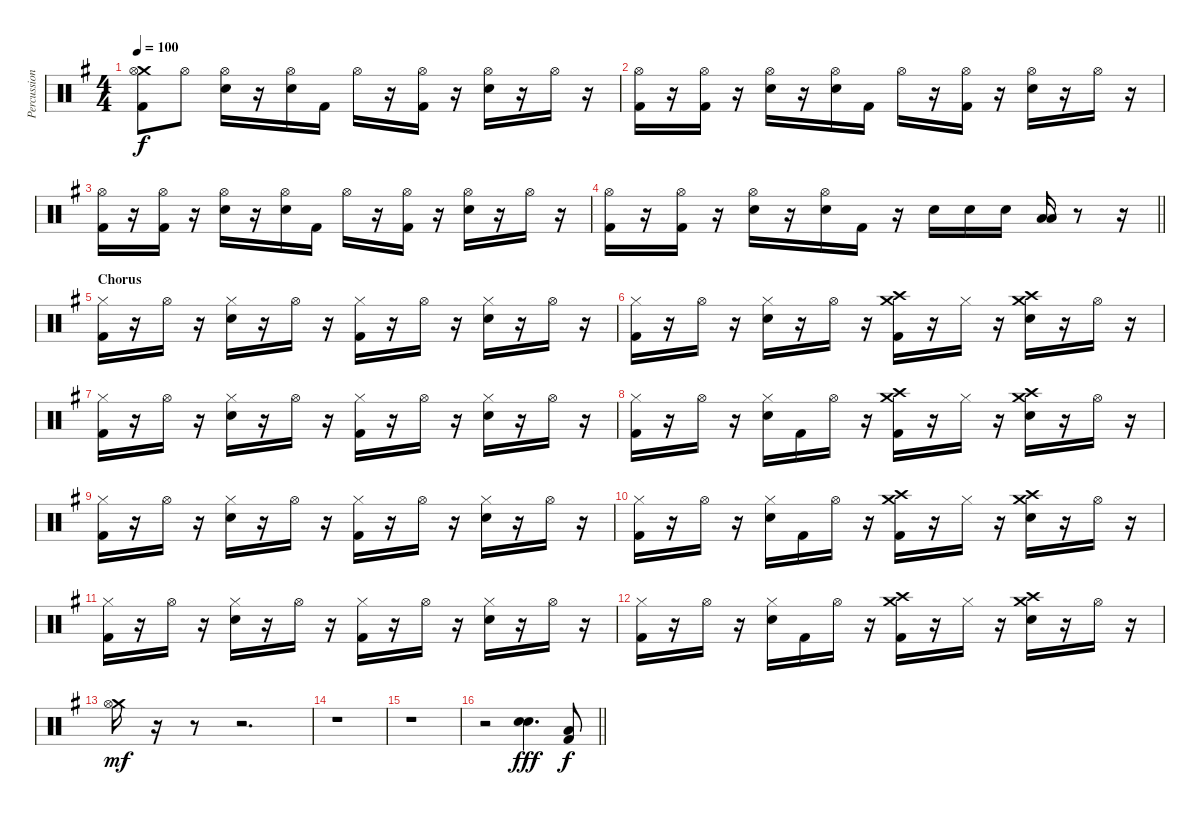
\track ("Percussion" "Percussion") {instrument percussion}
\staff {score}
\articulation defaults
\ts (4 4)
\tempo 100
\clef neutral
\ks g
("Crash medium (hit)" "Hi-Hat (open)" "Kick (hit) 2").8{dy f} "Hi-Hat (open)".8 ("Hi-Hat (open)" "Snare (hit) 2").16 r.16 ("Hi-Hat (open)" "Snare (hit) 2").16 "Kick (hit) 2".16 "Hi-Hat (open)".16 r.16 ("Hi-Hat (open)" "Kick (hit) 2").16 r.16 ("Hi-Hat (open)" "Snare (hit) 2").16 r.16 "Hi-Hat (open)".16 r.16 |
("Hi-Hat (open)" "Kick (hit) 2").16 r.16 ("Hi-Hat (open)" "Kick (hit) 2").16 r.16 ("Hi-Hat (open)" "Snare (hit) 2").16 r.16 ("Hi-Hat (open)" "Snare (hit) 2").16 "Kick (hit) 2".16 "Hi-Hat (open)".16 r.16 ("Hi-Hat (open)" "Kick (hit) 2").16 r.16 ("Hi-Hat (open)" "Snare (hit) 2").16 r.16 "Hi-Hat (open)".16 r.16 |
("Hi-Hat (open)" "Kick (hit) 2").16 r.16 ("Hi-Hat (open)" "Kick (hit) 2").16 r.16 ("Hi-Hat (open)" "Snare (hit) 2").16 r.16 ("Hi-Hat (open)" "Snare (hit) 2").16 "Kick (hit) 2".16 "Hi-Hat (open)".16 r.16 ("Hi-Hat (open)" "Kick (hit) 2").16 r.16 ("Hi-Hat (open)" "Snare (hit) 2").16 r.16 "Hi-Hat (open)".16 r.16 |
\barLineRight lightlight
("Hi-Hat (open)" "Kick (hit) 2").16 r.16 ("Hi-Hat (open)" "Kick (hit) 2").16 r.16 ("Hi-Hat (open)" "Snare (hit) 2").16 r.16 ("Hi-Hat (open)" "Snare (hit) 2").16 "Kick (hit) 2".16 r.16 "Snare (hit) 2".16 "Snare (hit) 2".16 "Snare (hit) 2".16 ("Low Tom (hit)" "Low Tom (hit)").16 r.8 r.16 |
\section ("" "Chorus")
("Hi-Hat (closed)" "Kick (hit) 2").16 r.16 "Hi-Hat (open)".16 r.16 ("Hi-Hat (closed)" "Snare (hit) 2").16 r.16 "Hi-Hat (open)".16 r.16 ("Hi-Hat (closed)" "Kick (hit) 2").16 r.16 "Hi-Hat (open)".16 r.16 ("Hi-Hat (closed)" "Snare (hit) 2").16 r.16 "Hi-Hat (open)".16 r.16 |
("Hi-Hat (closed)" "Kick (hit) 2").16 r.16 "Hi-Hat (open)".16 r.16 ("Hi-Hat (closed)" "Snare (hit) 2").16 r.16 "Hi-Hat (open)".16 r.16 ("Crash medium (hit)" "Crash high (hit)" "Kick (hit) 2").16 r.16 "Hi-Hat (closed)".16 r.16 ("Crash medium (hit)" "Crash high (hit)" "Snare (hit) 2").16 r.16 "Hi-Hat (open)".16 r.16 |
("Hi-Hat (closed)" "Kick (hit) 2").16 r.16 "Hi-Hat (open)".16 r.16 ("Hi-Hat (closed)" "Snare (hit) 2").16 r.16 "Hi-Hat (open)".16 r.16 ("Hi-Hat (closed)" "Kick (hit) 2").16 r.16 "Hi-Hat (open)".16 r.16 ("Hi-Hat (closed)" "Snare (hit) 2").16 r.16 "Hi-Hat (open)".16 r.16 |
("Hi-Hat (closed)" "Kick (hit) 2").16 r.16 "Hi-Hat (open)".16 r.16 ("Hi-Hat (closed)" "Snare (hit) 2").16 "Kick (hit) 2".16 "Hi-Hat (open)".16 r.16 ("Crash medium (hit)" "Crash high (hit)" "Kick (hit) 2").16 r.16 "Hi-Hat (closed)".16 r.16 ("Crash medium (hit)" "Crash high (hit)" "Snare (hit) 2").16 r.16 "Hi-Hat (open)".16 r.16 |
("Hi-Hat (closed)" "Kick (hit) 2").16 r.16 "Hi-Hat (open)".16 r.16 ("Hi-Hat (closed)" "Snare (hit) 2").16 r.16 "Hi-Hat (open)".16 r.16 ("Hi-Hat (closed)" "Kick (hit) 2").16 r.16 "Hi-Hat (open)".16 r.16 ("Hi-Hat (closed)" "Snare (hit) 2").16 r.16 "Hi-Hat (open)".16 r.16 |
("Hi-Hat (closed)" "Kick (hit) 2").16 r.16 "Hi-Hat (open)".16 r.16 ("Hi-Hat (closed)" "Snare (hit) 2").16 "Kick (hit) 2".16 "Hi-Hat (open)".16 r.16 ("Crash medium (hit)" "Crash high (hit)" "Kick (hit) 2").16 r.16 "Hi-Hat (closed)".16 r.16 ("Crash medium (hit)" "Crash high (hit)" "Snare (hit) 2").16 r.16 "Hi-Hat (open)".16 r.16 |
("Hi-Hat (closed)" "Kick (hit) 2").16 r.16 "Hi-Hat (open)".16 r.16 ("Hi-Hat (closed)" "Snare (hit) 2").16 r.16 "Hi-Hat (open)".16 r.16 ("Hi-Hat (closed)" "Kick (hit) 2").16 r.16 "Hi-Hat (open)".16 r.16 ("Hi-Hat (closed)" "Snare (hit) 2").16 r.16 "Hi-Hat (open)".16 r.16 |
("Hi-Hat (closed)" "Kick (hit) 2").16 r.16 "Hi-Hat (open)".16 r.16 ("Hi-Hat (closed)" "Snare (hit) 2").16 "Kick (hit) 2".16 "Hi-Hat (open)".16 r.16 ("Crash medium (hit)" "Crash high (hit)" "Kick (hit) 2").16 r.16 "Hi-Hat (closed)".16 r.16 ("Crash medium (hit)" "Crash high (hit)" "Snare (hit) 2").16 r.16 "Hi-Hat (open)".16 r.16 |
("Crash medium (hit)" "Hi-Hat (open)").16{dy mf} r.16 r.8 r.2{d} |
r.1 |
r.1 |
\barLineRight lightlight
r.2 ("Snare (hit) 2" "Snare (hit) 2").4{d dy fff} ("Low Tom (hit)" "Kick (hit) 2").8{dy f}
